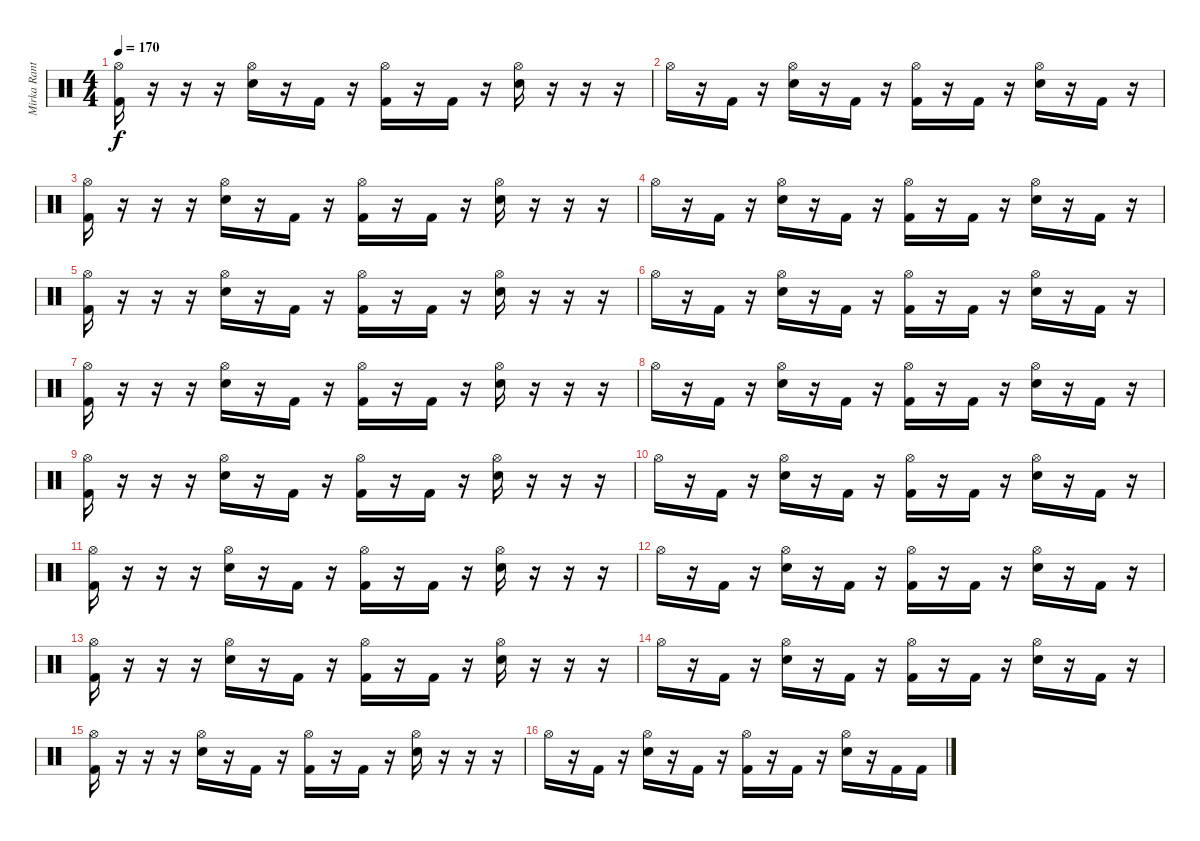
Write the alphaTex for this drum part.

\track ("Mirka Rantanen" "Mirka Rant") {instrument percussion}
\staff {score}
\articulation defaults
\ts (4 4)
\tempo 170
\clef neutral
\ks c
("Hi-Hat (open)" "Kick (hit) 2").16{dy f} r.16 r.16 r.16 ("Hi-Hat (open)" "Snare (hit) 2").16 r.16 "Kick (hit) 2".16 r.16 ("Hi-Hat (open)" "Kick (hit) 2").16 r.16 "Kick (hit) 2".16 r.16 ("Hi-Hat (open)" "Snare (hit) 2").16 r.16 r.16 r.16 |
"Hi-Hat (open)".16 r.16 "Kick (hit) 2".16 r.16 ("Hi-Hat (open)" "Snare (hit) 2").16 r.16 "Kick (hit) 2".16 r.16 ("Hi-Hat (open)" "Kick (hit) 2").16 r.16 "Kick (hit) 2".16 r.16 ("Hi-Hat (open)" "Snare (hit) 2").16 r.16 "Kick (hit) 2".16 r.16 |
("Hi-Hat (open)" "Kick (hit) 2").16 r.16 r.16 r.16 ("Hi-Hat (open)" "Snare (hit) 2").16 r.16 "Kick (hit) 2".16 r.16 ("Hi-Hat (open)" "Kick (hit) 2").16 r.16 "Kick (hit) 2".16 r.16 ("Hi-Hat (open)" "Snare (hit) 2").16 r.16 r.16 r.16 |
"Hi-Hat (open)".16 r.16 "Kick (hit) 2".16 r.16 ("Hi-Hat (open)" "Snare (hit) 2").16 r.16 "Kick (hit) 2".16 r.16 ("Hi-Hat (open)" "Kick (hit) 2").16 r.16 "Kick (hit) 2".16 r.16 ("Hi-Hat (open)" "Snare (hit) 2").16 r.16 "Kick (hit) 2".16 r.16 |
("Hi-Hat (open)" "Kick (hit) 2").16 r.16 r.16 r.16 ("Hi-Hat (open)" "Snare (hit) 2").16 r.16 "Kick (hit) 2".16 r.16 ("Hi-Hat (open)" "Kick (hit) 2").16 r.16 "Kick (hit) 2".16 r.16 ("Hi-Hat (open)" "Snare (hit) 2").16 r.16 r.16 r.16 |
"Hi-Hat (open)".16 r.16 "Kick (hit) 2".16 r.16 ("Hi-Hat (open)" "Snare (hit) 2").16 r.16 "Kick (hit) 2".16 r.16 ("Hi-Hat (open)" "Kick (hit) 2").16 r.16 "Kick (hit) 2".16 r.16 ("Hi-Hat (open)" "Snare (hit) 2").16 r.16 "Kick (hit) 2".16 r.16 |
("Hi-Hat (open)" "Kick (hit) 2").16 r.16 r.16 r.16 ("Hi-Hat (open)" "Snare (hit) 2").16 r.16 "Kick (hit) 2".16 r.16 ("Hi-Hat (open)" "Kick (hit) 2").16 r.16 "Kick (hit) 2".16 r.16 ("Hi-Hat (open)" "Snare (hit) 2").16 r.16 r.16 r.16 |
"Hi-Hat (open)".16 r.16 "Kick (hit) 2".16 r.16 ("Hi-Hat (open)" "Snare (hit) 2").16 r.16 "Kick (hit) 2".16 r.16 ("Hi-Hat (open)" "Kick (hit) 2").16 r.16 "Kick (hit) 2".16 r.16 ("Hi-Hat (open)" "Snare (hit) 2").16 r.16 "Kick (hit) 2".16 r.16 |
("Hi-Hat (open)" "Kick (hit) 2").16 r.16 r.16 r.16 ("Hi-Hat (open)" "Snare (hit) 2").16 r.16 "Kick (hit) 2".16 r.16 ("Hi-Hat (open)" "Kick (hit) 2").16 r.16 "Kick (hit) 2".16 r.16 ("Hi-Hat (open)" "Snare (hit) 2").16 r.16 r.16 r.16 |
"Hi-Hat (open)".16 r.16 "Kick (hit) 2".16 r.16 ("Hi-Hat (open)" "Snare (hit) 2").16 r.16 "Kick (hit) 2".16 r.16 ("Hi-Hat (open)" "Kick (hit) 2").16 r.16 "Kick (hit) 2".16 r.16 ("Hi-Hat (open)" "Snare (hit) 2").16 r.16 "Kick (hit) 2".16 r.16 |
("Hi-Hat (open)" "Kick (hit) 2").16 r.16 r.16 r.16 ("Hi-Hat (open)" "Snare (hit) 2").16 r.16 "Kick (hit) 2".16 r.16 ("Hi-Hat (open)" "Kick (hit) 2").16 r.16 "Kick (hit) 2".16 r.16 ("Hi-Hat (open)" "Snare (hit) 2").16 r.16 r.16 r.16 |
"Hi-Hat (open)".16 r.16 "Kick (hit) 2".16 r.16 ("Hi-Hat (open)" "Snare (hit) 2").16 r.16 "Kick (hit) 2".16 r.16 ("Hi-Hat (open)" "Kick (hit) 2").16 r.16 "Kick (hit) 2".16 r.16 ("Hi-Hat (open)" "Snare (hit) 2").16 r.16 "Kick (hit) 2".16 r.16 |
("Hi-Hat (open)" "Kick (hit) 2").16 r.16 r.16 r.16 ("Hi-Hat (open)" "Snare (hit) 2").16 r.16 "Kick (hit) 2".16 r.16 ("Hi-Hat (open)" "Kick (hit) 2").16 r.16 "Kick (hit) 2".16 r.16 ("Hi-Hat (open)" "Snare (hit) 2").16 r.16 r.16 r.16 |
"Hi-Hat (open)".16 r.16 "Kick (hit) 2".16 r.16 ("Hi-Hat (open)" "Snare (hit) 2").16 r.16 "Kick (hit) 2".16 r.16 ("Hi-Hat (open)" "Kick (hit) 2").16 r.16 "Kick (hit) 2".16 r.16 ("Hi-Hat (open)" "Snare (hit) 2").16 r.16 "Kick (hit) 2".16 r.16 |
("Hi-Hat (open)" "Kick (hit) 2").16 r.16 r.16 r.16 ("Hi-Hat (open)" "Snare (hit) 2").16 r.16 "Kick (hit) 2".16 r.16 ("Hi-Hat (open)" "Kick (hit) 2").16 r.16 "Kick (hit) 2".16 r.16 ("Hi-Hat (open)" "Snare (hit) 2").16 r.16 r.16 r.16 |
"Hi-Hat (open)".16 r.16 "Kick (hit) 2".16 r.16 ("Hi-Hat (open)" "Snare (hit) 2").16 r.16 "Kick (hit) 2".16 r.16 ("Hi-Hat (open)" "Kick (hit) 2").16 r.16 "Kick (hit) 2".16 r.16 ("Hi-Hat (open)" "Snare (hit) 2").16 r.16 "Kick (hit) 2".16 "Kick (hit) 2".16
